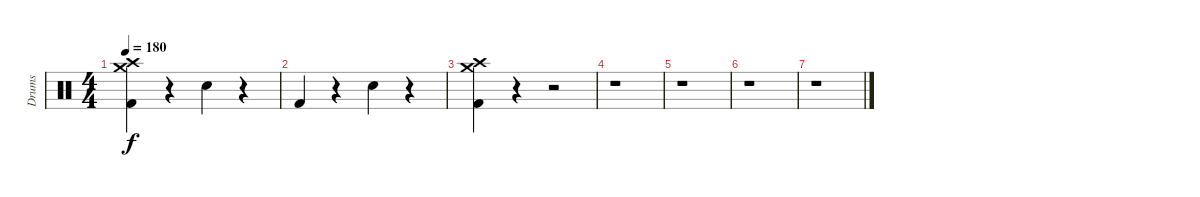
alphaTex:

\track ("Drums" "Drums") {instrument percussion}
\staff {score}
\articulation defaults
\ts (4 4)
\tempo 180
\clef neutral
\ks c
("Crash high (hit)" "Crash medium (hit)" "Kick (hit) 2").4{dy f} r.4 "Snare (hit) 2".4 r.4 |
"Kick (hit) 2".4 r.4 "Snare (hit) 2".4 r.4 |
("Crash high (hit)" "Crash medium (hit)" "Kick (hit) 2").4 r.4 r.2 |
r.1 |
r.1 |
r.1 |
r.1
